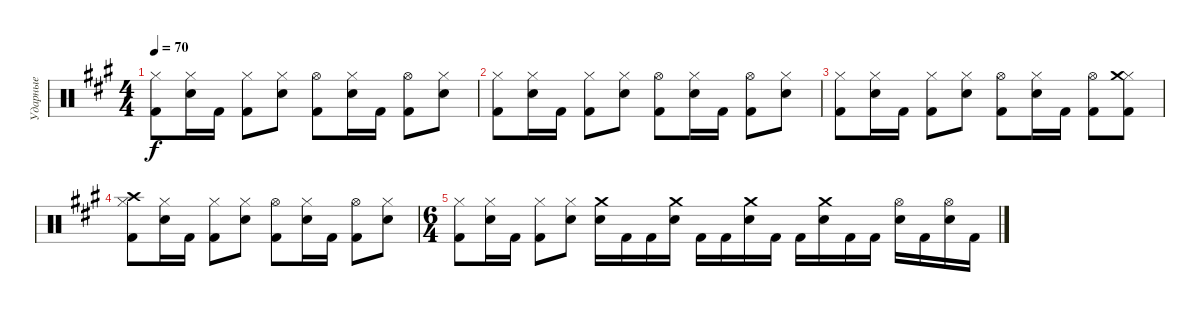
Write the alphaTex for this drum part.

\track ("Ударные" "Ударные") {instrument percussion}
\staff {score}
\articulation defaults
\ts (4 4)
\tempo 70
\clef neutral
\ks a
("Hi-Hat (closed)" "Kick (hit) 2").8{dy f} ("Hi-Hat (closed)" "Snare (hit) 2").16 "Kick (hit) 2".16 ("Hi-Hat (closed)" "Kick (hit) 2").8 ("Hi-Hat (closed)" "Snare (hit) 2").8 ("Hi-Hat (open)" "Kick (hit) 2").8 ("Hi-Hat (closed)" "Snare (hit) 2").16 "Kick (hit) 2".16 ("Hi-Hat (open)" "Kick (hit) 2").8 ("Hi-Hat (closed)" "Snare (hit) 2").8 |
("Hi-Hat (closed)" "Kick (hit) 2").8 ("Hi-Hat (closed)" "Snare (hit) 2").16 "Kick (hit) 2".16 ("Hi-Hat (closed)" "Kick (hit) 2").8 ("Hi-Hat (closed)" "Snare (hit) 2").8 ("Hi-Hat (open)" "Kick (hit) 2").8 ("Hi-Hat (closed)" "Snare (hit) 2").16 "Kick (hit) 2".16 ("Hi-Hat (open)" "Kick (hit) 2").8 ("Hi-Hat (closed)" "Snare (hit) 2").8 |
("Hi-Hat (closed)" "Kick (hit) 2").8 ("Hi-Hat (closed)" "Snare (hit) 2").16 "Kick (hit) 2".16 ("Hi-Hat (closed)" "Kick (hit) 2").8 ("Hi-Hat (closed)" "Snare (hit) 2").8 ("Hi-Hat (open)" "Kick (hit) 2").8 ("Hi-Hat (closed)" "Snare (hit) 2").16 "Kick (hit) 2".16 ("Hi-Hat (open)" "Kick (hit) 2").8 ("Hi-Hat (closed)" "Crash medium (hit)" "Kick (hit) 2").8 |
("Hi-Hat (closed)" "Crash high (hit)" "Kick (hit) 2").8 ("Hi-Hat (closed)" "Snare (hit) 2").16 "Kick (hit) 2".16 ("Hi-Hat (closed)" "Kick (hit) 2").8 ("Hi-Hat (closed)" "Snare (hit) 2").8 ("Hi-Hat (open)" "Kick (hit) 2").8 ("Hi-Hat (closed)" "Snare (hit) 2").16 "Kick (hit) 2".16 ("Hi-Hat (open)" "Kick (hit) 2").8 ("Hi-Hat (closed)" "Snare (hit) 2").8 |
\ts (6 4)
("Hi-Hat (closed)" "Kick (hit) 2").8 ("Hi-Hat (closed)" "Snare (hit) 2").16 "Kick (hit) 2".16 ("Hi-Hat (closed)" "Kick (hit) 2").8 ("Hi-Hat (closed)" "Snare (hit) 2").8 ("Snare (hit) 2" "Crash medium (hit)").16 "Kick (hit) 2".16 "Kick (hit) 2".16 ("Snare (hit) 2" "Crash medium (hit)").16 "Kick (hit) 2".16 "Kick (hit) 2".16 ("Snare (hit) 2" "Crash medium (hit)").16 "Kick (hit) 2".16 "Kick (hit) 2".16 ("Snare (hit) 2" "Crash medium (hit)").16 "Kick (hit) 2".16 "Kick (hit) 2".16 ("Snare (hit) 2" "Hi-Hat (open)").16 "Kick (hit) 2".16 ("Snare (hit) 2" "Hi-Hat (open)").16 "Kick (hit) 2".16
